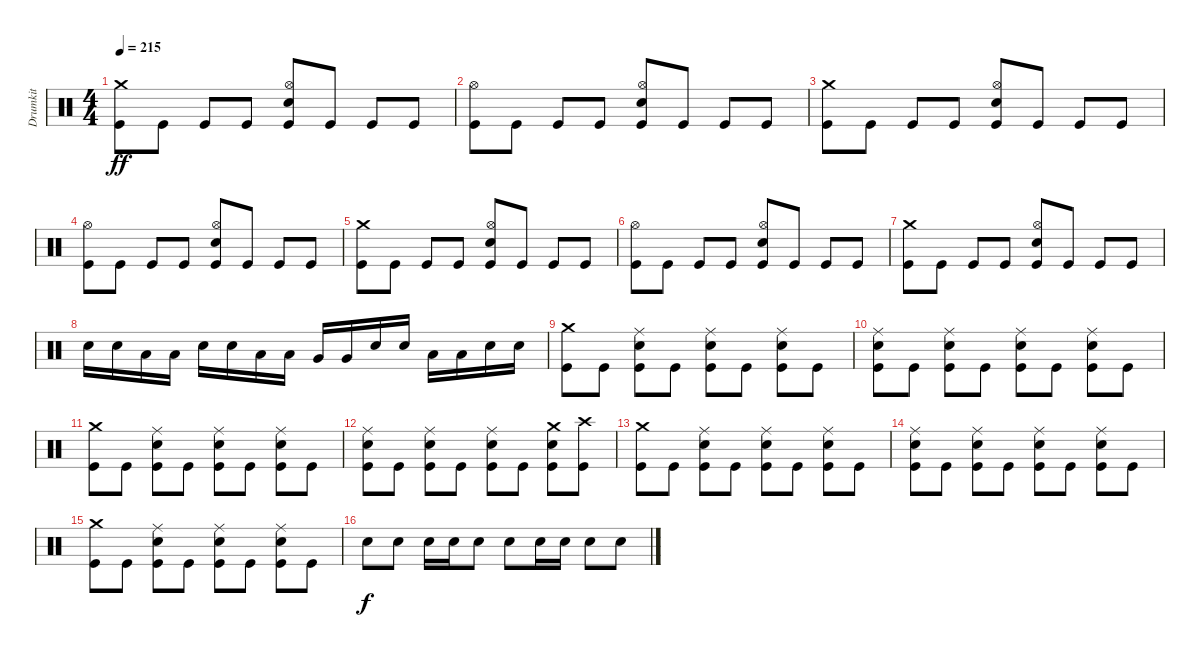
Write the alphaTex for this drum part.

\track ("Drumkit" "Drumkit") {instrument percussion}
\staff {score}
\articulation defaults
\ts (4 4)
\tempo 215
\clef neutral
\ks c
("Kick (hit)" "Crash medium (hit)").8{dy ff} "Kick (hit)".8 "Kick (hit)".8 "Kick (hit)".8 ("Kick (hit)" "Hi-Hat (open)" "Snare (hit) 2").8 "Kick (hit)".8 "Kick (hit)".8 "Kick (hit)".8 |
("Kick (hit)" "Hi-Hat (open)").8 "Kick (hit)".8 "Kick (hit)".8 "Kick (hit)".8 ("Kick (hit)" "Snare (hit) 2" "Hi-Hat (open)").8 "Kick (hit)".8 "Kick (hit)".8 "Kick (hit)".8 |
("Kick (hit)" "Crash medium (hit)").8 "Kick (hit)".8 "Kick (hit)".8 "Kick (hit)".8 ("Kick (hit)" "Hi-Hat (open)" "Snare (hit) 2").8 "Kick (hit)".8 "Kick (hit)".8 "Kick (hit)".8 |
("Kick (hit)" "Hi-Hat (open)").8 "Kick (hit)".8 "Kick (hit)".8 "Kick (hit)".8 ("Kick (hit)" "Hi-Hat (open)" "Snare (hit) 2").8 "Kick (hit)".8 "Kick (hit)".8 "Kick (hit)".8 |
("Kick (hit)" "Crash medium (hit)").8 "Kick (hit)".8 "Kick (hit)".8 "Kick (hit)".8 ("Kick (hit)" "Hi-Hat (open)" "Snare (hit) 2").8 "Kick (hit)".8 "Kick (hit)".8 "Kick (hit)".8 |
("Kick (hit)" "Hi-Hat (open)").8 "Kick (hit)".8 "Kick (hit)".8 "Kick (hit)".8 ("Kick (hit)" "Hi-Hat (open)" "Snare (hit) 2").8 "Kick (hit)".8 "Kick (hit)".8 "Kick (hit)".8 |
("Kick (hit)" "Crash medium (hit)").8 "Kick (hit)".8 "Kick (hit)".8 "Kick (hit)".8 ("Kick (hit)" "Hi-Hat (open)" "Snare (hit) 2").8 "Kick (hit)".8 "Kick (hit)".8 "Kick (hit)".8 |
"Snare (hit) 2".16 "Snare (hit) 2".16 "Low Tom (hit)".16 "Low Tom (hit)".16 "Snare (hit) 2".16 "Snare (hit) 2".16 "Low Tom (hit)".16 "Low Tom (hit)".16 "Very Low Tom (hit)".16 "Very Low Tom (hit)".16 "Snare (hit) 2".16 "Snare (hit) 2".16 "Low Floor Tom (hit)".16 "Low Floor Tom (hit)".16 "Snare (hit) 2".16 "Snare (hit) 2".16 |
("Kick (hit)" "Crash medium (hit)").8 "Kick (hit)".8 ("Kick (hit)" "Ride (middle)" "Snare (hit) 2").8 "Kick (hit)".8 ("Kick (hit)" "Snare (hit) 2" "Ride (middle)").8 "Kick (hit)".8 ("Kick (hit)" "Ride (middle)" "Snare (hit) 2").8 "Kick (hit)".8 |
("Kick (hit)" "Ride (middle)" "Snare (hit) 2").8 "Kick (hit)".8 ("Kick (hit)" "Ride (middle)" "Snare (hit) 2").8 "Kick (hit)".8 ("Kick (hit)" "Snare (hit) 2" "Ride (middle)").8 "Kick (hit)".8 ("Kick (hit)" "Ride (middle)" "Snare (hit) 2").8 "Kick (hit)".8 |
("Kick (hit)" "Crash medium (hit)").8 "Kick (hit)".8 ("Kick (hit)" "Ride (middle)" "Snare (hit) 2").8 "Kick (hit)".8 ("Kick (hit)" "Snare (hit) 2" "Ride (middle)").8 "Kick (hit)".8 ("Kick (hit)" "Ride (middle)" "Snare (hit) 2").8 "Kick (hit)".8 |
("Kick (hit)" "Ride (middle)" "Snare (hit) 2").8 "Kick (hit)".8 ("Kick (hit)" "Ride (middle)" "Snare (hit) 2").8 "Kick (hit)".8 ("Kick (hit)" "Snare (hit) 2" "Ride (middle)").8 "Kick (hit)".8 ("Kick (hit)" "Snare (hit) 2" "Crash medium (hit)").8 ("Kick (hit)" "Crash high (hit)").8 |
("Kick (hit)" "Crash medium (hit)").8 "Kick (hit)".8 ("Kick (hit)" "Ride (middle)" "Snare (hit) 2").8 "Kick (hit)".8 ("Kick (hit)" "Snare (hit) 2" "Ride (middle)").8 "Kick (hit)".8 ("Kick (hit)" "Ride (middle)" "Snare (hit) 2").8 "Kick (hit)".8 |
("Kick (hit)" "Ride (middle)" "Snare (hit) 2").8 "Kick (hit)".8 ("Kick (hit)" "Ride (middle)" "Snare (hit) 2").8 "Kick (hit)".8 ("Kick (hit)" "Snare (hit) 2" "Ride (middle)").8 "Kick (hit)".8 ("Kick (hit)" "Ride (middle)" "Snare (hit) 2").8 "Kick (hit)".8 |
("Kick (hit)" "Crash medium (hit)").8 "Kick (hit)".8 ("Kick (hit)" "Ride (middle)" "Snare (hit) 2").8 "Kick (hit)".8 ("Kick (hit)" "Snare (hit) 2" "Ride (middle)").8 "Kick (hit)".8 ("Kick (hit)" "Ride (middle)" "Snare (hit) 2").8 "Kick (hit)".8 |
"Snare (hit) 2".8{dy f} "Snare (hit) 2".8 "Snare (hit) 2".16 "Snare (hit) 2".16 "Snare (hit) 2".8 "Snare (hit) 2".8 "Snare (hit) 2".16 "Snare (hit) 2".16 "Snare (hit) 2".8 "Snare (hit) 2".8
